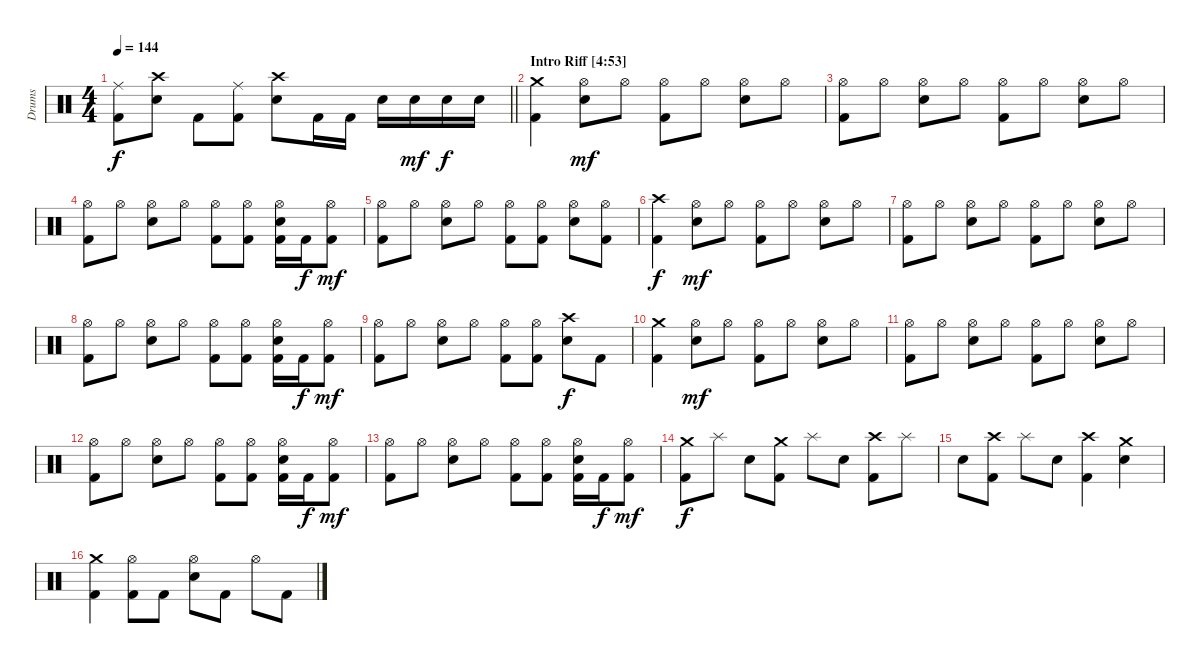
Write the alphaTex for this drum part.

\track ("Drums" "Drums") {instrument percussion}
\staff {score}
\articulation defaults
\ts (4 4)
\tempo 144
\clef neutral
\barLineRight lightlight
\ks c
("Ride (middle)" "Kick (hit) 2").8{dy f} ("Crash high (hit)" "Snare (hit) 2").8 "Kick (hit) 2".8 ("Ride (middle)" "Kick (hit) 2").8 ("Crash high (hit)" "Snare (hit) 2").8 "Kick (hit) 2".16 "Kick (hit) 2".16 "Snare (hit) 2".16 "Snare (hit) 2".16{dy mf} "Snare (hit) 2".16{dy f} "Snare (hit) 2".16 |
\section ("" "Intro Riff [4:53]")
("Crash medium (hit)" "Kick (hit) 2").4 ("Hi-Hat (open)" "Snare (hit) 2").8{dy mf} "Hi-Hat (open)".8 ("Hi-Hat (open)" "Kick (hit) 2").8 "Hi-Hat (open)".8 ("Hi-Hat (open)" "Snare (hit) 2").8 "Hi-Hat (open)".8 |
("Hi-Hat (open)" "Kick (hit) 2").8 "Hi-Hat (open)".8 ("Hi-Hat (open)" "Snare (hit) 2").8 "Hi-Hat (open)".8 ("Hi-Hat (open)" "Kick (hit) 2").8 "Hi-Hat (open)".8 ("Hi-Hat (open)" "Snare (hit) 2").8 "Hi-Hat (open)".8 |
("Hi-Hat (open)" "Kick (hit) 2").8 "Hi-Hat (open)".8 ("Hi-Hat (open)" "Snare (hit) 2").8 "Hi-Hat (open)".8 ("Hi-Hat (open)" "Kick (hit) 2").8 ("Hi-Hat (open)" "Kick (hit) 2").8 ("Hi-Hat (open)" "Snare (hit) 2" "Kick (hit) 2").16 "Kick (hit) 2".16{dy f} ("Hi-Hat (open)" "Kick (hit) 2").8{dy mf} |
("Hi-Hat (open)" "Kick (hit) 2").8 "Hi-Hat (open)".8 ("Hi-Hat (open)" "Snare (hit) 2").8 "Hi-Hat (open)".8 ("Hi-Hat (open)" "Kick (hit) 2").8 ("Hi-Hat (open)" "Kick (hit) 2").8 ("Hi-Hat (open)" "Snare (hit) 2").8 ("Hi-Hat (open)" "Kick (hit) 2").8 |
("Crash high (hit)" "Kick (hit) 2").4{dy f} ("Hi-Hat (open)" "Snare (hit) 2").8{dy mf} "Hi-Hat (open)".8 ("Hi-Hat (open)" "Kick (hit) 2").8 "Hi-Hat (open)".8 ("Hi-Hat (open)" "Snare (hit) 2").8 "Hi-Hat (open)".8 |
("Hi-Hat (open)" "Kick (hit) 2").8 "Hi-Hat (open)".8 ("Hi-Hat (open)" "Snare (hit) 2").8 "Hi-Hat (open)".8 ("Hi-Hat (open)" "Kick (hit) 2").8 "Hi-Hat (open)".8 ("Hi-Hat (open)" "Snare (hit) 2").8 "Hi-Hat (open)".8 |
("Hi-Hat (open)" "Kick (hit) 2").8 "Hi-Hat (open)".8 ("Hi-Hat (open)" "Snare (hit) 2").8 "Hi-Hat (open)".8 ("Hi-Hat (open)" "Kick (hit) 2").8 ("Hi-Hat (open)" "Kick (hit) 2").8 ("Hi-Hat (open)" "Snare (hit) 2" "Kick (hit) 2").16 "Kick (hit) 2".16{dy f} ("Hi-Hat (open)" "Kick (hit) 2").8{dy mf} |
("Hi-Hat (open)" "Kick (hit) 2").8 "Hi-Hat (open)".8 ("Hi-Hat (open)" "Snare (hit) 2").8 "Hi-Hat (open)".8 ("Hi-Hat (open)" "Kick (hit) 2").8 ("Hi-Hat (open)" "Kick (hit) 2").8 ("Crash high (hit)" "Snare (hit) 2").8{dy f} "Kick (hit) 2".8 |
("Crash medium (hit)" "Kick (hit) 2").4 ("Hi-Hat (open)" "Snare (hit) 2").8{dy mf} "Hi-Hat (open)".8 ("Hi-Hat (open)" "Kick (hit) 2").8 "Hi-Hat (open)".8 ("Hi-Hat (open)" "Snare (hit) 2").8 "Hi-Hat (open)".8 |
("Hi-Hat (open)" "Kick (hit) 2").8 "Hi-Hat (open)".8 ("Hi-Hat (open)" "Snare (hit) 2").8 "Hi-Hat (open)".8 ("Hi-Hat (open)" "Kick (hit) 2").8 "Hi-Hat (open)".8 ("Hi-Hat (open)" "Snare (hit) 2").8 "Hi-Hat (open)".8 |
("Hi-Hat (open)" "Kick (hit) 2").8 "Hi-Hat (open)".8 ("Hi-Hat (open)" "Snare (hit) 2").8 "Hi-Hat (open)".8 ("Hi-Hat (open)" "Kick (hit) 2").8 ("Hi-Hat (open)" "Kick (hit) 2").8 ("Hi-Hat (open)" "Snare (hit) 2" "Kick (hit) 2").16 "Kick (hit) 2".16{dy f} ("Hi-Hat (open)" "Kick (hit) 2").8{dy mf} |
("Hi-Hat (open)" "Kick (hit) 2").8 "Hi-Hat (open)".8 ("Hi-Hat (open)" "Snare (hit) 2").8 "Hi-Hat (open)".8 ("Hi-Hat (open)" "Kick (hit) 2").8 ("Hi-Hat (open)" "Kick (hit) 2").8 ("Hi-Hat (open)" "Snare (hit) 2" "Kick (hit) 2").16 "Kick (hit) 2".16{dy f} ("Hi-Hat (open)" "Kick (hit) 2").8{dy mf} |
("Crash medium (hit)" "Kick (hit) 2").8{dy f} "Splash (hit)".8 "Snare (hit) 2".8 ("Crash medium (hit)" "Kick (hit) 2").8 "Splash (hit)".8 "Snare (hit) 2".8 ("Crash high (hit)" "Kick (hit) 2").8 "Splash (hit)".8 |
"Snare (hit) 2".8 ("Crash high (hit)" "Kick (hit) 2").8 "Splash (hit)".8 "Snare (hit) 2".8 ("Crash high (hit)" "Kick (hit) 2").4 ("Crash medium (hit)" "Snare (hit) 2").4 |
("Crash medium (hit)" "Kick (hit) 2").4 ("Hi-Hat (open)" "Kick (hit) 2").8 "Kick (hit) 2".8 ("Hi-Hat (open)" "Snare (hit) 2").8 "Kick (hit) 2".8 "Hi-Hat (open)".8 "Kick (hit) 2".8
